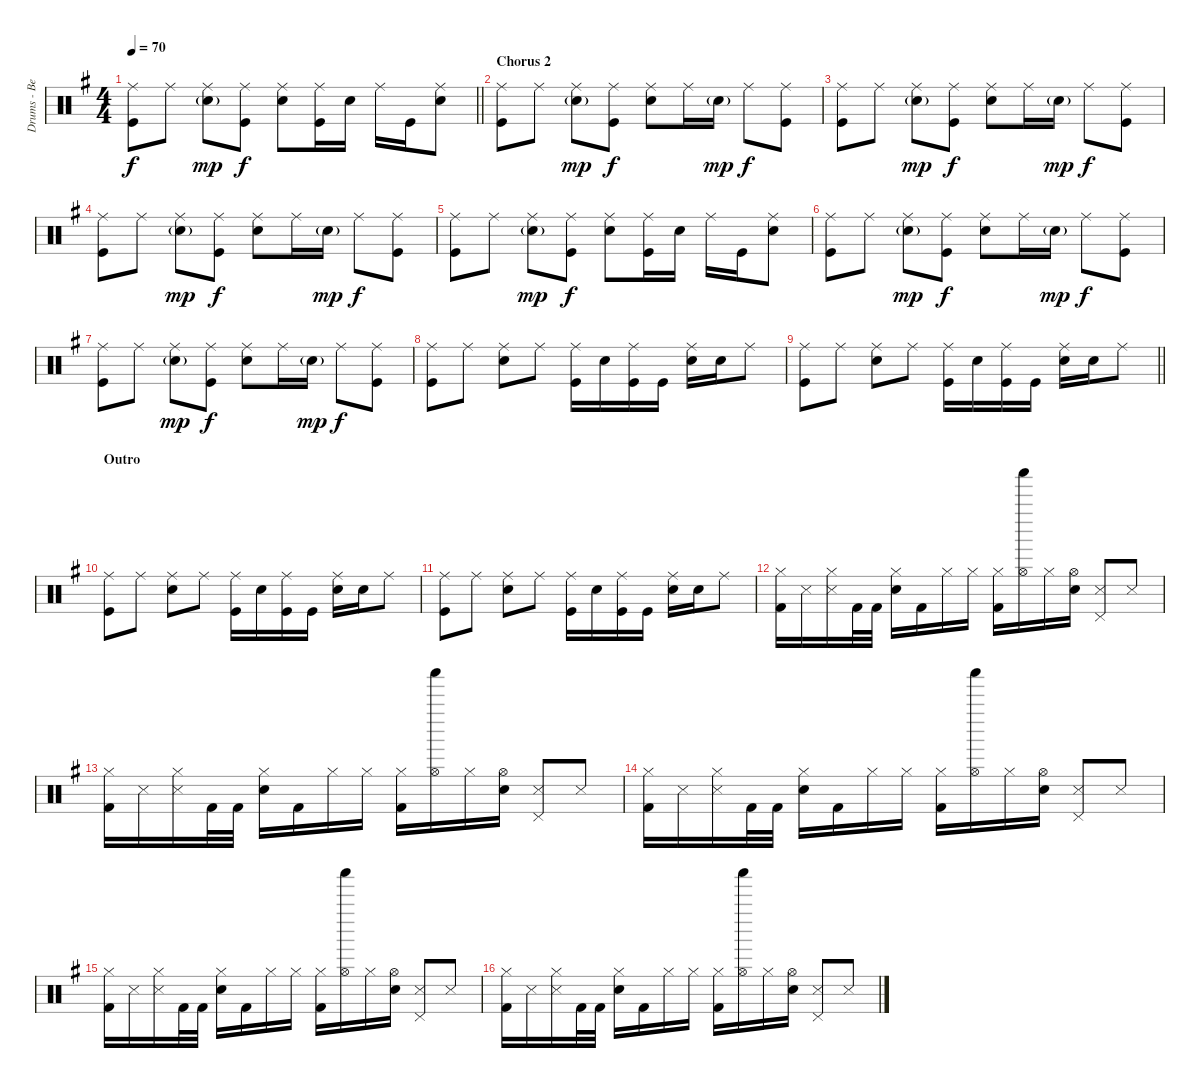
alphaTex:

\track ("Drums - Ben Johnston" "Drums - Be") {instrument percussion}
\staff {score}
\articulation defaults
\ts (4 4)
\tempo 70
\clef neutral
\barLineRight lightlight
\ks g
("Ride (middle)" "Kick (hit)").8{dy f} "Ride (middle)".8 ("Ride (middle)" "Snare (hit) 2"{g}).8{dy mp} ("Ride (middle)" "Kick (hit)").8{dy f} ("Ride (middle)" "Snare (hit) 2").8 ("Ride (middle)" "Kick (hit)").16 "Snare (hit) 2".16 "Ride (middle)".16 "Kick (hit)".16 ("Ride (middle)" "Snare (hit) 2").8 |
\section ("" "Chorus 2")
("Ride (middle)" "Kick (hit)").8 "Ride (middle)".8 ("Ride (middle)" "Snare (hit) 2"{g}).8{dy mp} ("Ride (middle)" "Kick (hit)").8{dy f} ("Ride (middle)" "Snare (hit) 2").8 "Ride (middle)".16 "Snare (hit) 2"{g}.16{dy mp} "Ride (middle)".8{dy f} ("Ride (middle)" "Kick (hit)").8 |
("Ride (middle)" "Kick (hit)").8 "Ride (middle)".8 ("Ride (middle)" "Snare (hit) 2"{g}).8{dy mp} ("Ride (middle)" "Kick (hit)").8{dy f} ("Ride (middle)" "Snare (hit) 2").8 "Ride (middle)".16 "Snare (hit) 2"{g}.16{dy mp} "Ride (middle)".8{dy f} ("Ride (middle)" "Kick (hit)").8 |
("Ride (middle)" "Kick (hit)").8 "Ride (middle)".8 ("Ride (middle)" "Snare (hit) 2"{g}).8{dy mp} ("Ride (middle)" "Kick (hit)").8{dy f} ("Ride (middle)" "Snare (hit) 2").8 "Ride (middle)".16 "Snare (hit) 2"{g}.16{dy mp} "Ride (middle)".8{dy f} ("Ride (middle)" "Kick (hit)").8 |
("Ride (middle)" "Kick (hit)").8 "Ride (middle)".8 ("Ride (middle)" "Snare (hit) 2"{g}).8{dy mp} ("Ride (middle)" "Kick (hit)").8{dy f} ("Ride (middle)" "Snare (hit) 2").8 ("Ride (middle)" "Kick (hit)").16 "Snare (hit) 2".16 "Ride (middle)".16 "Kick (hit)".16 ("Ride (middle)" "Snare (hit) 2").8 |
("Ride (middle)" "Kick (hit)").8 "Ride (middle)".8 ("Ride (middle)" "Snare (hit) 2"{g}).8{dy mp} ("Ride (middle)" "Kick (hit)").8{dy f} ("Ride (middle)" "Snare (hit) 2").8 "Ride (middle)".16 "Snare (hit) 2"{g}.16{dy mp} "Ride (middle)".8{dy f} ("Ride (middle)" "Kick (hit)").8 |
("Ride (middle)" "Kick (hit)").8 "Ride (middle)".8 ("Ride (middle)" "Snare (hit) 2"{g}).8{dy mp} ("Ride (middle)" "Kick (hit)").8{dy f} ("Ride (middle)" "Snare (hit) 2").8 "Ride (middle)".16 "Snare (hit) 2"{g}.16{dy mp} "Ride (middle)".8{dy f} ("Ride (middle)" "Kick (hit)").8 |
("Ride (middle)" "Kick (hit)").8 "Ride (middle)".8 ("Ride (middle)" "Snare (hit) 2").8 "Ride (middle)".8 ("Ride (middle)" "Kick (hit)").16 "Snare (hit) 2".16 ("Ride (middle)" "Kick (hit)").16 "Kick (hit)".16 ("Ride (middle)" "Snare (hit) 2").16 "Snare (hit) 2".16 "Ride (middle)".8 |
\barLineRight lightlight
("Ride (middle)" "Kick (hit)").8 "Ride (middle)".8 ("Ride (middle)" "Snare (hit) 2").8 "Ride (middle)".8 ("Ride (middle)" "Kick (hit)").16 "Snare (hit) 2".16 ("Ride (middle)" "Kick (hit)").16 "Kick (hit)".16 ("Ride (middle)" "Snare (hit) 2").16 "Snare (hit) 2".16 "Ride (middle)".8 |
\section ("" "Outro")
("Ride (middle)" "Kick (hit)").8 "Ride (middle)".8 ("Ride (middle)" "Snare (hit) 2").8 "Ride (middle)".8 ("Ride (middle)" "Kick (hit)").16 "Snare (hit) 2".16 ("Ride (middle)" "Kick (hit)").16 "Kick (hit)".16 ("Ride (middle)" "Snare (hit) 2").16 "Snare (hit) 2".16 "Ride (middle)".8 |
("Ride (middle)" "Kick (hit)").8 "Ride (middle)".8 ("Ride (middle)" "Snare (hit) 2").8 "Ride (middle)".8 ("Ride (middle)" "Kick (hit)").16 "Snare (hit) 2".16 ("Ride (middle)" "Kick (hit)").16 "Kick (hit)".16 ("Ride (middle)" "Snare (hit) 2").16 "Snare (hit) 2".16 "Ride (middle)".8 |
("Hi-Hat (closed)" "Kick (hit) 2").16{balance 0} "Snare (side stick) 3".16{balance 8} ("Hi-Hat (closed)" "Snare (side stick) 3").16 "Kick (hit) 2".32 "Kick (hit) 2".32 ("Hi-Hat (closed)" "Electric Snare (hit)").16 "Kick (hit) 2".16 "Hi-Hat (closed)".16{balance 0} "Hi-Hat (closed)".16 ("Hi-Hat (closed)" "Kick (hit) 2").16 ("Hi-Hat (open)" "Shaker (hit)").16{balance 16} "Hi-Hat (closed)".16{balance 0} ("Hi-Hat (open)" "Electric Snare (hit)").16{balance 8} ("Snare (side stick) 3" "Pedal Hi-Hat (hit)").8 "Snare (side stick) 3".8 |
("Hi-Hat (closed)" "Kick (hit) 2").16{balance 0} "Snare (side stick) 3".16{balance 8} ("Hi-Hat (closed)" "Snare (side stick) 3").16 "Kick (hit) 2".32 "Kick (hit) 2".32 ("Hi-Hat (closed)" "Electric Snare (hit)").16 "Kick (hit) 2".16 "Hi-Hat (closed)".16{balance 0} "Hi-Hat (closed)".16 ("Hi-Hat (closed)" "Kick (hit) 2").16 ("Hi-Hat (open)" "Shaker (hit)").16{balance 16} "Hi-Hat (closed)".16{balance 0} ("Hi-Hat (open)" "Electric Snare (hit)").16{balance 8} ("Snare (side stick) 3" "Pedal Hi-Hat (hit)").8 "Snare (side stick) 3".8 |
("Hi-Hat (closed)" "Kick (hit) 2").16{balance 0} "Snare (side stick) 3".16{balance 8} ("Hi-Hat (closed)" "Snare (side stick) 3").16 "Kick (hit) 2".32 "Kick (hit) 2".32 ("Hi-Hat (closed)" "Electric Snare (hit)").16 "Kick (hit) 2".16 "Hi-Hat (closed)".16{balance 0} "Hi-Hat (closed)".16 ("Hi-Hat (closed)" "Kick (hit) 2").16 ("Hi-Hat (open)" "Shaker (hit)").16{balance 16} "Hi-Hat (closed)".16{balance 0} ("Hi-Hat (open)" "Electric Snare (hit)").16{balance 8} ("Snare (side stick) 3" "Pedal Hi-Hat (hit)").8 "Snare (side stick) 3".8 |
("Hi-Hat (closed)" "Kick (hit) 2").16{balance 0} "Snare (side stick) 3".16{balance 8} ("Hi-Hat (closed)" "Snare (side stick) 3").16 "Kick (hit) 2".32 "Kick (hit) 2".32 ("Hi-Hat (closed)" "Electric Snare (hit)").16 "Kick (hit) 2".16 "Hi-Hat (closed)".16{balance 0} "Hi-Hat (closed)".16 ("Hi-Hat (closed)" "Kick (hit) 2").16 ("Hi-Hat (open)" "Shaker (hit)").16{balance 16} "Hi-Hat (closed)".16{balance 0} ("Hi-Hat (open)" "Electric Snare (hit)").16{balance 8} ("Snare (side stick) 3" "Pedal Hi-Hat (hit)").8 "Snare (side stick) 3".8 |
("Hi-Hat (closed)" "Kick (hit) 2").16{balance 0} "Snare (side stick) 3".16{balance 8} ("Hi-Hat (closed)" "Snare (side stick) 3").16 "Kick (hit) 2".32 "Kick (hit) 2".32 ("Hi-Hat (closed)" "Electric Snare (hit)").16 "Kick (hit) 2".16 "Hi-Hat (closed)".16{balance 0} "Hi-Hat (closed)".16 ("Hi-Hat (closed)" "Kick (hit) 2").16 ("Hi-Hat (open)" "Shaker (hit)").16{balance 16} "Hi-Hat (closed)".16{balance 0} ("Hi-Hat (open)" "Electric Snare (hit)").16{balance 8} ("Snare (side stick) 3" "Pedal Hi-Hat (hit)").8 "Snare (side stick) 3".8
